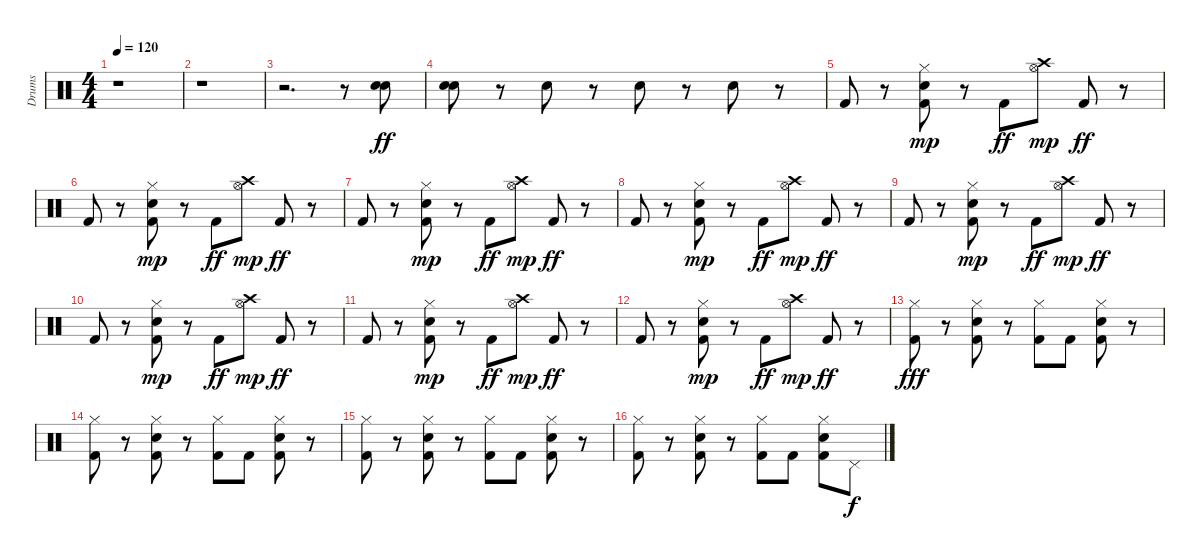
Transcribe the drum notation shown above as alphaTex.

\track ("Drums" "Drums") {instrument percussion}
\staff {score}
\articulation defaults
\ts (4 4)
\tempo 120
\clef neutral
\ks c
r.1{dy ff} |
r.1 |
r.2{d} r.8 ("Electric Snare (hit)" "Electric Snare (hit)").8 |
("Electric Snare (hit)" "Electric Snare (hit)").8 r.8 "Electric Snare (hit)".8 r.8 "Electric Snare (hit)".8 r.8 "Electric Snare (hit)".8 r.8 |
"Kick (hit) 2".8 r.8 ("Kick (hit) 2" "Electric Snare (hit)" "Hi-Hat (closed)").8{dy mp} r.8 "Kick (hit) 2".8{dy ff} ("Hi-Hat (open)" "Crash high (hit)").8{dy mp} "Kick (hit) 2".8{dy ff} r.8 |
"Kick (hit) 2".8 r.8 ("Kick (hit) 2" "Electric Snare (hit)" "Hi-Hat (closed)").8{dy mp} r.8 "Kick (hit) 2".8{dy ff} ("Hi-Hat (open)" "Crash high (hit)").8{dy mp} "Kick (hit) 2".8{dy ff} r.8 |
"Kick (hit) 2".8 r.8 ("Kick (hit) 2" "Electric Snare (hit)" "Hi-Hat (closed)").8{dy mp} r.8 "Kick (hit) 2".8{dy ff} ("Hi-Hat (open)" "Crash high (hit)").8{dy mp} "Kick (hit) 2".8{dy ff} r.8 |
"Kick (hit) 2".8 r.8 ("Kick (hit) 2" "Electric Snare (hit)" "Hi-Hat (closed)").8{dy mp} r.8 "Kick (hit) 2".8{dy ff} ("Hi-Hat (open)" "Crash high (hit)").8{dy mp} "Kick (hit) 2".8{dy ff} r.8 |
"Kick (hit) 2".8 r.8 ("Kick (hit) 2" "Electric Snare (hit)" "Hi-Hat (closed)").8{dy mp} r.8 "Kick (hit) 2".8{dy ff} ("Hi-Hat (open)" "Crash high (hit)").8{dy mp} "Kick (hit) 2".8{dy ff} r.8 |
"Kick (hit) 2".8 r.8 ("Kick (hit) 2" "Electric Snare (hit)" "Hi-Hat (closed)").8{dy mp} r.8 "Kick (hit) 2".8{dy ff} ("Hi-Hat (open)" "Crash high (hit)").8{dy mp} "Kick (hit) 2".8{dy ff} r.8 |
"Kick (hit) 2".8 r.8 ("Kick (hit) 2" "Electric Snare (hit)" "Hi-Hat (closed)").8{dy mp} r.8 "Kick (hit) 2".8{dy ff} ("Hi-Hat (open)" "Crash high (hit)").8{dy mp} "Kick (hit) 2".8{dy ff} r.8 |
"Kick (hit) 2".8 r.8 ("Kick (hit) 2" "Electric Snare (hit)" "Hi-Hat (closed)").8{dy mp} r.8 "Kick (hit) 2".8{dy ff} ("Hi-Hat (open)" "Crash high (hit)").8{dy mp} "Kick (hit) 2".8{dy ff} r.8 |
("Kick (hit) 2" "Hi-Hat (closed)").8{dy fff} r.8 ("Kick (hit) 2" "Electric Snare (hit)" "Hi-Hat (closed)").8 r.8 ("Kick (hit) 2" "Hi-Hat (closed)").8 "Kick (hit) 2".8 ("Kick (hit) 2" "Electric Snare (hit)" "Hi-Hat (closed)").8 r.8 |
("Kick (hit) 2" "Hi-Hat (closed)").8 r.8 ("Kick (hit) 2" "Electric Snare (hit)" "Hi-Hat (closed)").8 r.8 ("Kick (hit) 2" "Hi-Hat (closed)").8 "Kick (hit) 2".8 ("Kick (hit) 2" "Electric Snare (hit)" "Hi-Hat (closed)").8 r.8 |
("Kick (hit) 2" "Hi-Hat (closed)").8 r.8 ("Kick (hit) 2" "Electric Snare (hit)" "Hi-Hat (closed)").8 r.8 ("Kick (hit) 2" "Hi-Hat (closed)").8 "Kick (hit) 2".8 ("Kick (hit) 2" "Electric Snare (hit)" "Hi-Hat (closed)").8 r.8 |
("Kick (hit) 2" "Hi-Hat (closed)").8 r.8 ("Kick (hit) 2" "Electric Snare (hit)" "Hi-Hat (closed)").8 r.8 ("Kick (hit) 2" "Hi-Hat (closed)").8 "Kick (hit) 2".8 ("Kick (hit) 2" "Electric Snare (hit)" "Hi-Hat (closed)").8 "Pedal Hi-Hat (hit)".8{dy f}
